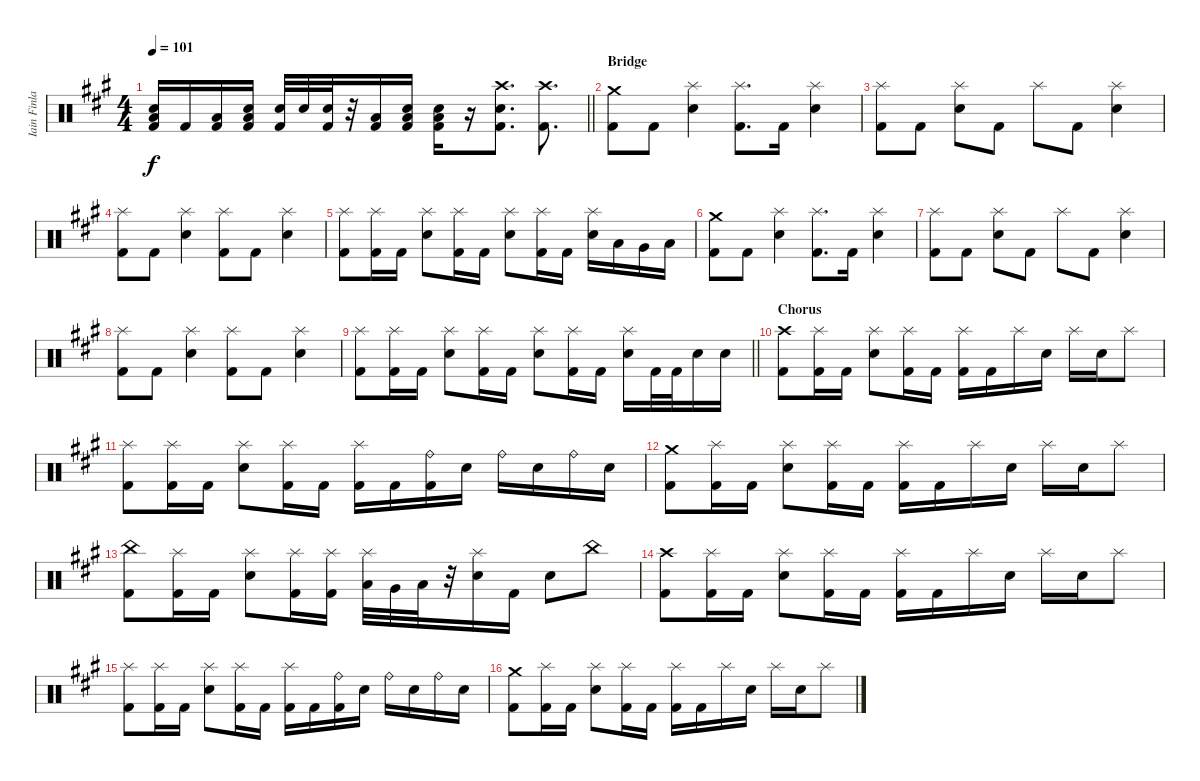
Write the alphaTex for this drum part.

\track ("Iain Finlay" "Iain Finla") {instrument percussion}
\staff {score}
\articulation defaults
\ts (4 4)
\tempo 101
\clef neutral
\barLineRight lightlight
\ks f#minor
("Snare (hit) 2" "Low Tom (hit)" "Kick (hit) 2").16{dy f} "Kick (hit) 2".16 ("Low Floor Tom (hit)" "Kick (hit) 2").16 ("Snare (hit) 2" "Low Tom (hit)" "Kick (hit) 2").16 ("Snare (hit) 2" "Kick (hit) 2").32 "Snare (hit) 2".32 ("Snare (hit) 2" "Kick (hit) 2").32 r.32 ("Low Floor Tom (hit)" "Kick (hit) 2").16 ("Snare (hit) 2" "Low Tom (hit)" "Kick (hit) 2").16 ("Snare (hit) 2" "Low Tom (hit)" "Kick (hit) 2").16 r.16 ("Crash high (hit)" "Snare (hit) 2" "Kick (hit) 2").8{d} ("Crash high (hit)" "Kick (hit) 2").8{d} |
\section ("" "Bridge")
("Crash medium (hit)" "Kick (hit) 2").8 "Kick (hit) 2".8 ("Splash (hit)" "Snare (hit) 2").4 ("Splash (hit)" "Kick (hit) 2").8{d} "Kick (hit) 2".16 ("Splash (hit)" "Snare (hit) 2").4 |
("Splash (hit)" "Kick (hit) 2").8 "Kick (hit) 2".8 ("Splash (hit)" "Snare (hit) 2").8 "Kick (hit) 2".8 "Splash (hit)".8 "Kick (hit) 2".8 ("Splash (hit)" "Snare (hit) 2").4 |
("Splash (hit)" "Kick (hit) 2").8 "Kick (hit) 2".8 ("Splash (hit)" "Snare (hit) 2").4 ("Splash (hit)" "Kick (hit) 2").8 "Kick (hit) 2".8 ("Splash (hit)" "Snare (hit) 2").4 |
("Splash (hit)" "Kick (hit) 2").8 ("Splash (hit)" "Kick (hit) 2").16 "Kick (hit) 2".16 ("Splash (hit)" "Snare (hit) 2").8 ("Splash (hit)" "Kick (hit) 2").16 "Kick (hit) 2".16 ("Splash (hit)" "Snare (hit) 2").8 ("Splash (hit)" "Kick (hit) 2").16 "Kick (hit) 2".16 ("Splash (hit)" "Snare (hit) 2").16 "Low Tom (hit)".16 "Very Low Tom (hit)".16 "Low Floor Tom (hit)".16 |
("Crash medium (hit)" "Kick (hit) 2").8 "Kick (hit) 2".8 ("Splash (hit)" "Snare (hit) 2").4 ("Splash (hit)" "Kick (hit) 2").8{d} "Kick (hit) 2".16 ("Splash (hit)" "Snare (hit) 2").4 |
("Splash (hit)" "Kick (hit) 2").8 "Kick (hit) 2".8 ("Splash (hit)" "Snare (hit) 2").8 "Kick (hit) 2".8 "Splash (hit)".8 "Kick (hit) 2".8 ("Splash (hit)" "Snare (hit) 2").4 |
("Splash (hit)" "Kick (hit) 2").8 "Kick (hit) 2".8 ("Splash (hit)" "Snare (hit) 2").4 ("Splash (hit)" "Kick (hit) 2").8 "Kick (hit) 2".8 ("Splash (hit)" "Snare (hit) 2").4 |
\barLineRight lightlight
("Splash (hit)" "Kick (hit) 2").8 ("Splash (hit)" "Kick (hit) 2").16 "Kick (hit) 2".16 ("Splash (hit)" "Snare (hit) 2").8 ("Splash (hit)" "Kick (hit) 2").16 "Kick (hit) 2".16 ("Splash (hit)" "Snare (hit) 2").8 ("Splash (hit)" "Kick (hit) 2").16 "Kick (hit) 2".16 ("Splash (hit)" "Snare (hit) 2").16 "Kick (hit) 2".32 "Kick (hit) 2".32 "Snare (hit) 2".16 "Snare (hit) 2".16 |
\section ("" "Chorus")
("Crash high (hit)" "Kick (hit) 2").8 ("Splash (hit)" "Kick (hit) 2").16 "Kick (hit) 2".16 ("Splash (hit)" "Snare (hit) 2").8 ("Splash (hit)" "Kick (hit) 2").16 "Kick (hit) 2".16 ("Splash (hit)" "Kick (hit) 2").16 "Kick (hit) 2".16 "Splash (hit)".16 "Snare (hit) 2".16 "Splash (hit)".16 "Snare (hit) 2".16 "Splash (hit)".8 |
("Splash (hit)" "Kick (hit) 2").8 ("Splash (hit)" "Kick (hit) 2").16 "Kick (hit) 2".16 ("Splash (hit)" "Snare (hit) 2").8 ("Splash (hit)" "Kick (hit) 2").16 "Kick (hit) 2".16 ("Splash (hit)" "Kick (hit) 2").16 "Kick (hit) 2".16 ("Ride (bell)" "Kick (hit) 2").16 "Snare (hit) 2".16 "Ride (bell)".16 "Snare (hit) 2".16 "Ride (bell)".16 "Snare (hit) 2".16 |
("Crash medium (hit)" "Kick (hit) 2").8 ("Splash (hit)" "Kick (hit) 2").16 "Kick (hit) 2".16 ("Splash (hit)" "Snare (hit) 2").8 ("Splash (hit)" "Kick (hit) 2").16 "Kick (hit) 2".16 ("Splash (hit)" "Kick (hit) 2").16 "Kick (hit) 2".16 "Splash (hit)".16 "Snare (hit) 2".16 "Splash (hit)".16 "Snare (hit) 2".16 "Splash (hit)".8 |
("China (hit)" "Kick (hit) 2").8 ("Splash (hit)" "Kick (hit) 2").16 "Kick (hit) 2".16 ("Splash (hit)" "Snare (hit) 2").8 ("Splash (hit)" "Kick (hit) 2").16 ("Splash (hit)" "Kick (hit) 2").16 ("Splash (hit)" "Low Tom (hit)").32 "Very Low Tom (hit)".32 "Low Floor Tom (hit)".32 r.32 ("Splash (hit)" "Snare (hit) 2").16 "Kick (hit) 2".16 "Snare (hit) 2".8 "China (hit)".8 |
("Crash high (hit)" "Kick (hit) 2").8 ("Splash (hit)" "Kick (hit) 2").16 "Kick (hit) 2".16 ("Splash (hit)" "Snare (hit) 2").8 ("Splash (hit)" "Kick (hit) 2").16 "Kick (hit) 2".16 ("Splash (hit)" "Kick (hit) 2").16 "Kick (hit) 2".16 "Splash (hit)".16 "Snare (hit) 2".16 "Splash (hit)".16 "Snare (hit) 2".16 "Splash (hit)".8 |
("Splash (hit)" "Kick (hit) 2").8 ("Splash (hit)" "Kick (hit) 2").16 "Kick (hit) 2".16 ("Splash (hit)" "Snare (hit) 2").8 ("Splash (hit)" "Kick (hit) 2").16 "Kick (hit) 2".16 ("Splash (hit)" "Kick (hit) 2").16 "Kick (hit) 2".16 ("Ride (bell)" "Kick (hit) 2").16 "Snare (hit) 2".16 "Ride (bell)".16 "Snare (hit) 2".16 "Ride (bell)".16 "Snare (hit) 2".16 |
("Crash medium (hit)" "Kick (hit) 2").8 ("Splash (hit)" "Kick (hit) 2").16 "Kick (hit) 2".16 ("Splash (hit)" "Snare (hit) 2").8 ("Splash (hit)" "Kick (hit) 2").16 "Kick (hit) 2".16 ("Splash (hit)" "Kick (hit) 2").16 "Kick (hit) 2".16 "Splash (hit)".16 "Snare (hit) 2".16 "Splash (hit)".16 "Snare (hit) 2".16 "Splash (hit)".8
